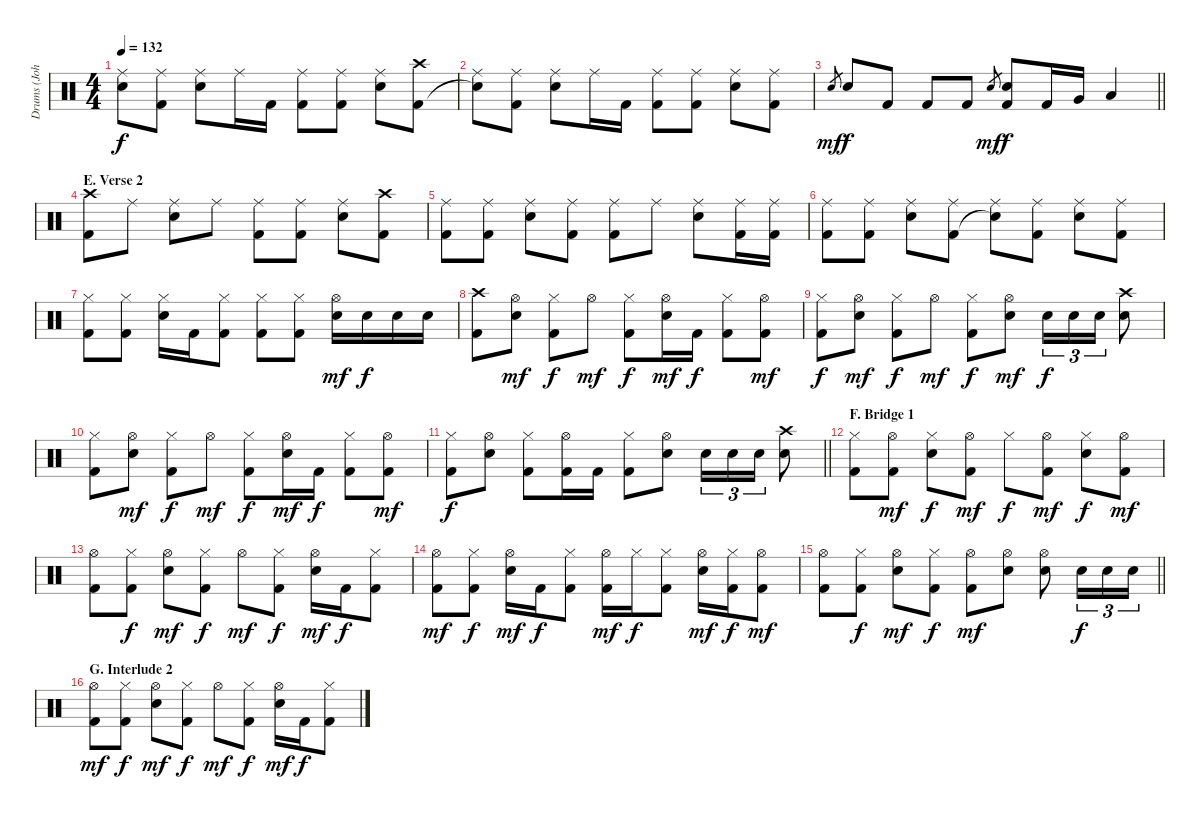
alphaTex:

\track ("Drums (John Bonham)" "Drums (Joh") {instrument percussion}
\staff {score}
\articulation defaults
\ts (4 4)
\tempo 132
\clef neutral
\ks c
("Ride (middle)" "Snare (hit)"{t}).8{dy f} ("Ride (middle)" "Kick (hit) 2").8 ("Ride (middle)" "Electric Snare (hit)").8 "Ride (middle)".16 "Kick (hit) 2".16 ("Ride (middle)" "Kick (hit) 2").8 ("Ride (middle)" "Kick (hit) 2").8 ("Ride (middle)" "Electric Snare (hit)").8 ("Crash high (hit)" "Kick (hit) 2").8 |
("Ride (middle)" "Snare (hit)"{t}).8 ("Ride (middle)" "Kick (hit) 2").8 ("Ride (middle)" "Electric Snare (hit)").8 "Ride (middle)".16 "Kick (hit) 2".16 ("Ride (middle)" "Kick (hit) 2").8 ("Ride (middle)" "Kick (hit) 2").8 ("Ride (middle)" "Electric Snare (hit)").8 ("Ride (middle)" "Kick (hit) 2").8 |
\barLineRight lightlight "Electric Snare (hit)".8{gr dy mf} "Electric Snare (hit)".8{dy f} "Kick (hit) 2".8 "Kick (hit) 2".8 "Kick (hit) 2".8 "Electric Snare (hit)".8{gr dy mf}
("Electric Snare (hit)" "Kick (hit) 2").8{dy f} "Kick (hit) 2".16 "Very Low Tom (hit)".16 "Low Tom (hit)".4 |
\section ("" "E. Verse 2")
("Crash high (hit)" "Kick (hit) 2").8 "Ride (middle)".8 ("Ride (middle)" "Electric Snare (hit)").8 "Ride (middle)".8 ("Ride (middle)" "Kick (hit) 2").8 ("Ride (middle)" "Kick (hit) 2").8 ("Ride (middle)" "Electric Snare (hit)").8 ("Crash high (hit)" "Kick (hit) 2").8 |
("Ride (middle)" "Kick (hit) 2").8 ("Ride (middle)" "Kick (hit) 2").8 ("Ride (middle)" "Electric Snare (hit)").8 ("Ride (middle)" "Kick (hit) 2").8 ("Ride (middle)" "Kick (hit) 2").8 "Ride (middle)".8 ("Ride (middle)" "Electric Snare (hit)").8 ("Ride (middle)" "Kick (hit) 2").16 ("Ride (middle)" "Kick (hit) 2").16 |
("Ride (middle)" "Kick (hit) 2").8 ("Ride (middle)" "Kick (hit) 2").8 ("Ride (middle)" "Electric Snare (hit)").8 ("Ride (middle)" "Kick (hit) 2").8 ("Ride (middle)" "Snare (hit)"{t}).8 ("Ride (middle)" "Kick (hit) 2").8 ("Ride (middle)" "Electric Snare (hit)").8 ("Ride (middle)" "Kick (hit) 2").8 |
("Hi-Hat (closed)" "Kick (hit) 2").8 ("Hi-Hat (closed)" "Kick (hit) 2").8 ("Hi-Hat (closed)" "Electric Snare (hit)").16 "Kick (hit) 2".16 ("Hi-Hat (closed)" "Kick (hit) 2").8 ("Hi-Hat (closed)" "Kick (hit) 2").8 ("Hi-Hat (closed)" "Kick (hit) 2").8 ("Hi-Hat (open)" "Electric Snare (hit)").16{dy mf} "Electric Snare (hit)".16{dy f} "Electric Snare (hit)".16 "Electric Snare (hit)".16 |
("Crash high (hit)" "Kick (hit) 2").8 ("Hi-Hat (open)" "Electric Snare (hit)").8{dy mf} ("Hi-Hat (closed)" "Kick (hit) 2").8{dy f} "Hi-Hat (open)".8{dy mf} ("Hi-Hat (closed)" "Kick (hit) 2").8{dy f} ("Hi-Hat (open)" "Electric Snare (hit)").16{dy mf} "Kick (hit) 2".16{dy f} ("Hi-Hat (closed)" "Kick (hit) 2").8 ("Hi-Hat (open)" "Kick (hit) 2").8{dy mf} |
("Hi-Hat (closed)" "Kick (hit) 2").8{dy f} ("Hi-Hat (open)" "Electric Snare (hit)").8{dy mf} ("Hi-Hat (closed)" "Kick (hit) 2").8{dy f} "Hi-Hat (open)".8{dy mf} ("Hi-Hat (closed)" "Kick (hit) 2").8{dy f} ("Hi-Hat (open)" "Electric Snare (hit)").8{dy mf} "Electric Snare (hit)".16{tu (3 2) dy f} "Electric Snare (hit)".16{tu (3 2)} "Electric Snare (hit)".16{tu (3 2)} ("Crash high (hit)" "Electric Snare (hit)").8 |
("Hi-Hat (closed)" "Kick (hit) 2").8 ("Hi-Hat (open)" "Electric Snare (hit)").8{dy mf} ("Hi-Hat (closed)" "Kick (hit) 2").8{dy f} "Hi-Hat (open)".8{dy mf} ("Hi-Hat (closed)" "Kick (hit) 2").8{dy f} ("Hi-Hat (open)" "Electric Snare (hit)").16{dy mf} "Kick (hit) 2".16{dy f} ("Hi-Hat (closed)" "Kick (hit) 2").8 ("Hi-Hat (open)" "Kick (hit) 2").8{dy mf} |
\barLineRight lightlight
("Hi-Hat (closed)" "Kick (hit) 2").8{dy f} ("Hi-Hat (open)" "Electric Snare (hit)").8 ("Hi-Hat (closed)" "Kick (hit) 2").8 ("Hi-Hat (open)" "Kick (hit) 2").16 "Kick (hit) 2".16 ("Hi-Hat (closed)" "Kick (hit) 2").8 ("Hi-Hat (open)" "Electric Snare (hit)").8 "Electric Snare (hit)".16{tu (3 2)} "Electric Snare (hit)".16{tu (3 2)} "Electric Snare (hit)".16{tu (3 2)} ("Crash high (hit)" "Electric Snare (hit)").8 |
\section ("" "F. Bridge 1")
("Hi-Hat (closed)" "Kick (hit) 2").8 ("Hi-Hat (open)" "Kick (hit) 2").8{dy mf} ("Hi-Hat (closed)" "Electric Snare (hit)").8{dy f} ("Hi-Hat (open)" "Kick (hit) 2").8{dy mf} "Hi-Hat (closed)".8{dy f} ("Hi-Hat (open)" "Kick (hit) 2").8{dy mf} ("Hi-Hat (closed)" "Electric Snare (hit)").8{dy f} ("Hi-Hat (open)" "Kick (hit) 2").8{dy mf} |
("Hi-Hat (open)" "Kick (hit) 2").8 ("Hi-Hat (closed)" "Kick (hit) 2").8{dy f} ("Hi-Hat (open)" "Electric Snare (hit)").8{dy mf} ("Hi-Hat (closed)" "Kick (hit) 2").8{dy f} "Hi-Hat (open)".8{dy mf} ("Hi-Hat (closed)" "Kick (hit) 2").8{dy f} ("Hi-Hat (open)" "Electric Snare (hit)").16{dy mf} "Kick (hit) 2".16{dy f} ("Hi-Hat (closed)" "Kick (hit) 2").8 |
("Hi-Hat (open)" "Kick (hit) 2").8{dy mf} ("Hi-Hat (closed)" "Kick (hit) 2").8{dy f} ("Hi-Hat (open)" "Electric Snare (hit)").16{dy mf} "Kick (hit) 2".16{dy f} ("Hi-Hat (closed)" "Kick (hit) 2").8 ("Hi-Hat (open)" "Kick (hit) 2").16{dy mf} "Hi-Hat (closed)".16{dy f} ("Hi-Hat (closed)" "Kick (hit) 2").8 ("Hi-Hat (open)" "Electric Snare (hit)").16{dy mf} ("Hi-Hat (closed)" "Kick (hit) 2").16{dy f} ("Hi-Hat (open)" "Kick (hit) 2").8{dy mf} |
\barLineRight lightlight
("Hi-Hat (open)" "Kick (hit) 2").8 ("Hi-Hat (closed)" "Kick (hit) 2").8{dy f} ("Hi-Hat (open)" "Electric Snare (hit)").8{dy mf} ("Hi-Hat (closed)" "Kick (hit) 2").8{dy f} ("Hi-Hat (open)" "Kick (hit) 2").8{dy mf} ("Hi-Hat (open)" "Electric Snare (hit)").8 ("Hi-Hat (open)" "Electric Snare (hit)").8 "Electric Snare (hit)".16{tu (3 2) dy f} "Electric Snare (hit)".16{tu (3 2)} "Electric Snare (hit)".16{tu (3 2)} |
\section ("" "G. Interlude 2")
("Hi-Hat (open)" "Kick (hit) 2").8{dy mf} ("Hi-Hat (closed)" "Kick (hit) 2").8{dy f} ("Hi-Hat (open)" "Electric Snare (hit)").8{dy mf} ("Hi-Hat (closed)" "Kick (hit) 2").8{dy f} "Hi-Hat (open)".8{dy mf} ("Hi-Hat (closed)" "Kick (hit) 2").8{dy f} ("Hi-Hat (open)" "Electric Snare (hit)").16{dy mf} "Kick (hit) 2".16{dy f} ("Hi-Hat (closed)" "Kick (hit) 2").8
